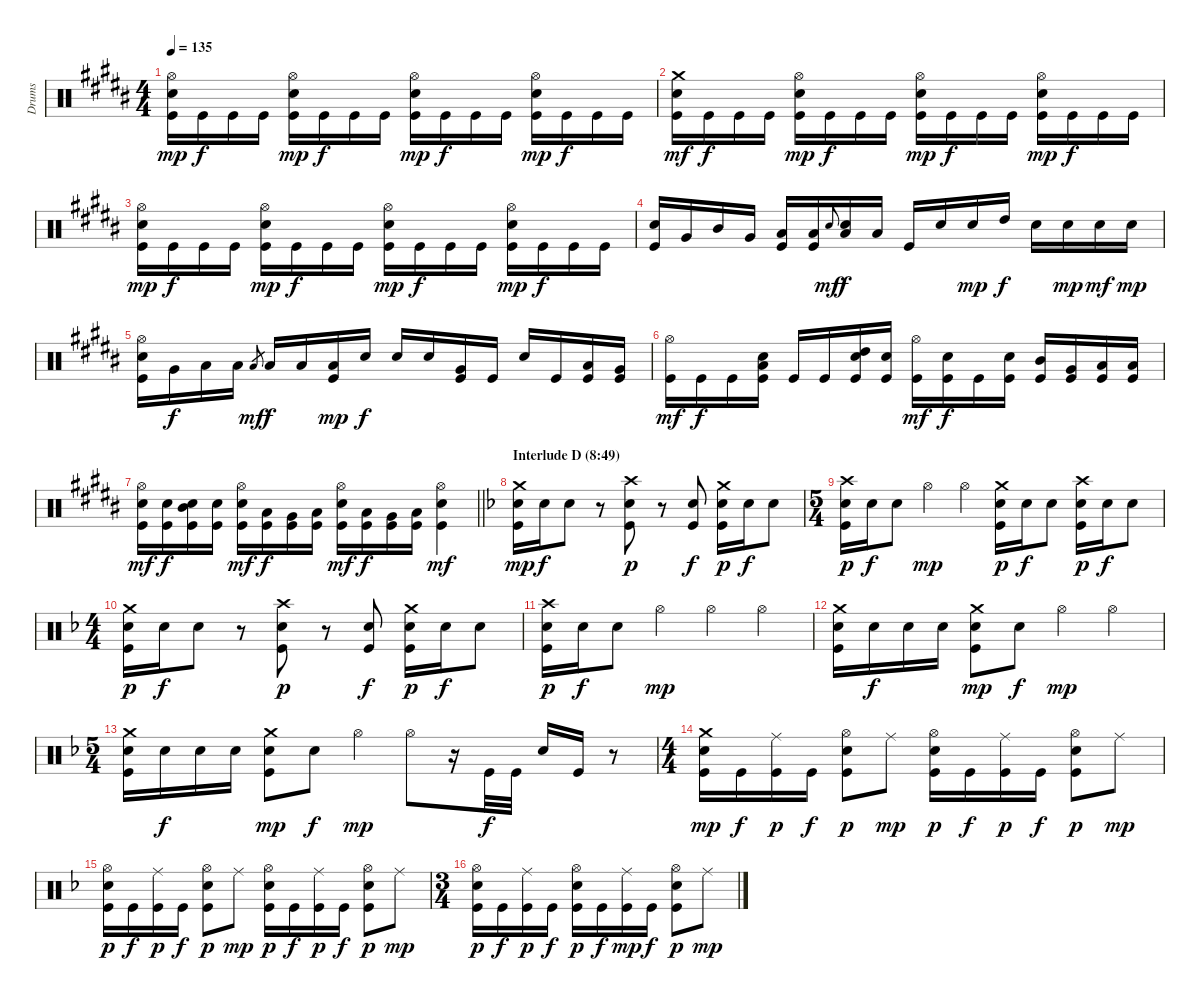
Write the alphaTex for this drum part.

\track ("Drums" "Drums") {instrument percussion}
\staff {score}
\articulation defaults
\ts (4 4)
\tempo 135
\clef neutral
\ks g#minor
("Hi-Hat (open)" "Snare (hit) 2" "Kick (hit)").16{dy mp} "Kick (hit)".16{dy f} "Kick (hit)".16 "Kick (hit)".16 ("Hi-Hat (open)" "Snare (hit) 2" "Kick (hit)").16{dy mp} "Kick (hit)".16{dy f} "Kick (hit)".16 "Kick (hit)".16 ("Hi-Hat (open)" "Snare (hit) 2" "Kick (hit)").16{dy mp} "Kick (hit)".16{dy f} "Kick (hit)".16 "Kick (hit)".16 ("Hi-Hat (open)" "Snare (hit) 2" "Kick (hit)").16{dy mp} "Kick (hit)".16{dy f} "Kick (hit)".16 "Kick (hit)".16 |
("Crash medium (hit)" "Snare (hit) 2" "Kick (hit)").16{dy mf} "Kick (hit)".16{dy f} "Kick (hit)".16 "Kick (hit)".16 ("Hi-Hat (open)" "Snare (hit) 2" "Kick (hit)").16{dy mp} "Kick (hit)".16{dy f} "Kick (hit)".16 "Kick (hit)".16 ("Hi-Hat (open)" "Snare (hit) 2" "Kick (hit)").16{dy mp} "Kick (hit)".16{dy f} "Kick (hit)".16 "Kick (hit)".16 ("Hi-Hat (open)" "Snare (hit) 2" "Kick (hit)").16{dy mp} "Kick (hit)".16{dy f} "Kick (hit)".16 "Kick (hit)".16 |
("Hi-Hat (open)" "Snare (hit) 2" "Kick (hit)").16{dy mp} "Kick (hit)".16{dy f} "Kick (hit)".16 "Kick (hit)".16 ("Hi-Hat (open)" "Snare (hit) 2" "Kick (hit)").16{dy mp} "Kick (hit)".16{dy f} "Kick (hit)".16 "Kick (hit)".16 ("Hi-Hat (open)" "Snare (hit) 2" "Kick (hit)").16{dy mp} "Kick (hit)".16{dy f} "Kick (hit)".16 "Kick (hit)".16 ("Hi-Hat (open)" "Snare (hit) 2" "Kick (hit)").16{dy mp} "Kick (hit)".16{dy f} "Kick (hit)".16 "Kick (hit)".16 |
("Snare (hit) 2" "Kick (hit)").16 "Very Low Tom (hit)".16 "Mid Tom (hit)".16 "Very Low Tom (hit)".16 ("Low Floor Tom (hit)" "Kick (hit)").16 ("Low Floor Tom (hit)" "Kick (hit)").16 "Snare (hit) 2".8{gr onbeat dy mf} ("Low Tom (hit)" "Snare (hit) 2").16{dy f} "Low Floor Tom (hit)".16 "Kick (hit)".16 "Snare (hit) 2".16 "Snare (hit) 2".16{dy mp} "High Tom (hit)".16{dy f} "Snare (hit) 2".16 "Snare (hit) 2".16{dy mp} "Snare (hit) 2".16{dy mf} "Snare (hit) 2".16{dy mp} |
("Hi-Hat (open)" "Snare (hit) 2" "Kick (hit)").16 "Very Low Tom (hit)".16{dy f} "Low Floor Tom (hit)".16 "Low Floor Tom (hit)".16 "Low Floor Tom (hit)".8{gr dy mf} "Low Floor Tom (hit)".16{dy f} "Low Floor Tom (hit)".16 ("Low Floor Tom (hit)" "Kick (hit)").16{dy mp} "Snare (hit) 2".16{dy f} "Snare (hit) 2".16 "Snare (hit) 2".16 ("Very Low Tom (hit)" "Kick (hit)").16 "Kick (hit)".16 "Snare (hit) 2".16 "Kick (hit)".16 ("Low Tom (hit)" "Kick (hit)").16 ("Very Low Tom (hit)" "Kick (hit)").16 |
("Hi-Hat (open)" "Kick (hit)").16{dy mf} "Kick (hit)".16{dy f} "Kick (hit)".16 ("Low Tom (hit)" "Snare (hit) 2" "Kick (hit)").16 "Kick (hit)".16 "Kick (hit)".16 ("High Tom (hit)" "Snare (hit) 2" "Kick (hit)").16 ("Snare (hit) 2" "Kick (hit)").16 ("Hi-Hat (open)" "Kick (hit)").16{dy mf} ("Snare (hit) 2" "Kick (hit)").16{dy f} "Kick (hit)".16 ("Snare (hit) 2" "Kick (hit)").16 ("Mid Tom (hit)" "Kick (hit)").16 ("Very Low Tom (hit)" "Kick (hit)").16 ("Low Floor Tom (hit)" "Kick (hit)").16 ("Low Floor Tom (hit)" "Kick (hit)").16 |
\barLineRight lightlight
("Hi-Hat (open)" "Snare (hit) 2" "Kick (hit)").16{dy mf} ("Snare (hit) 2" "Kick (hit)").16{dy f} ("Mid Tom (hit)" "Snare (hit) 2" "Kick (hit)").16 ("Snare (hit) 2" "Kick (hit)").16 ("Hi-Hat (open)" "Snare (hit) 2" "Kick (hit)").16{dy mf} ("Low Tom (hit)" "Kick (hit)").16{dy f} ("Very Low Tom (hit)" "Kick (hit)").16 ("Low Floor Tom (hit)" "Kick (hit)").16 ("Hi-Hat (open)" "Snare (hit) 2" "Kick (hit)").16{dy mf} ("Low Tom (hit)" "Kick (hit)").16{dy f} ("Very Low Tom (hit)" "Kick (hit)").16 ("Low Floor Tom (hit)" "Kick (hit)").16 ("Hi-Hat (open)" "Snare (hit) 2" "Kick (hit)").4{dy mf} |
\section ("" "Interlude D (8:49)")
\ks dminor
("Crash medium (hit)" "Snare (hit) 2" "Kick (hit)").16{dy mp} "Snare (hit) 2".16{dy f} "Snare (hit) 2".8 r.8 ("Crash high (hit)" "Snare (hit) 2" "Kick (hit)").8{dy p} r.8 ("Snare (hit) 2" "Kick (hit)").8{dy f} ("Crash medium (hit)" "Snare (hit) 2" "Kick (hit)").16{dy p} "Snare (hit) 2".16{dy f} "Snare (hit) 2".8 |
\ts (5 4)
("Crash high (hit)" "Snare (hit) 2" "Kick (hit)").16{dy p} "Snare (hit) 2".16{dy f} "Snare (hit) 2".8 "Hi-Hat (open)".4{dy mp} "Hi-Hat (open)".4 ("Crash medium (hit)" "Snare (hit) 2" "Kick (hit)").16{dy p} "Snare (hit) 2".16{dy f} "Snare (hit) 2".8 ("Crash high (hit)" "Snare (hit) 2" "Kick (hit)").16{dy p} "Snare (hit) 2".16{dy f} "Snare (hit) 2".8 |
\ts (4 4)
("Crash medium (hit)" "Snare (hit) 2" "Kick (hit)").16{dy p} "Snare (hit) 2".16{dy f} "Snare (hit) 2".8 r.8 ("Crash high (hit)" "Snare (hit) 2" "Kick (hit)").8{dy p} r.8 ("Snare (hit) 2" "Kick (hit)").8{dy f} ("Crash medium (hit)" "Snare (hit) 2" "Kick (hit)").16{dy p} "Snare (hit) 2".16{dy f} "Snare (hit) 2".8 |
("Crash high (hit)" "Snare (hit) 2" "Kick (hit)").16{dy p} "Snare (hit) 2".16{dy f} "Snare (hit) 2".8 "Hi-Hat (open)".4{dy mp} "Hi-Hat (open)".4 "Hi-Hat (open)".4 |
("Crash medium (hit)" "Snare (hit) 2" "Kick (hit)").16 "Snare (hit) 2".16{dy f} "Snare (hit) 2".16 "Snare (hit) 2".16 ("Crash medium (hit)" "Snare (hit) 2" "Kick (hit)").8{dy mp} "Snare (hit) 2".8{dy f} "Hi-Hat (open)".4{dy mp} "Hi-Hat (open)".4 |
\ts (5 4)
("Crash medium (hit)" "Snare (hit) 2" "Kick (hit)").16 "Snare (hit) 2".16{dy f} "Snare (hit) 2".16 "Snare (hit) 2".16 ("Crash medium (hit)" "Snare (hit) 2" "Kick (hit)").8{dy mp} "Snare (hit) 2".8{dy f} "Hi-Hat (open)".4{dy mp} "Hi-Hat (open)".8 r.16 "Kick (hit)".32{dy f} "Kick (hit)".32 "Snare (hit) 2".16 "Kick (hit)".16 r.8 |
\ts (4 4)
("Crash medium (hit)" "Snare (hit) 2" "Kick (hit)").16{dy mp} "Kick (hit)".16{dy f} ("Ride (middle)" "Kick (hit)").16{dy p} "Kick (hit)".16{dy f} ("Hi-Hat (open)" "Snare (hit) 2" "Kick (hit)").8{dy p} "Ride (middle)".8{dy mp} ("Hi-Hat (open)" "Snare (hit) 2" "Kick (hit)").16{dy p} "Kick (hit)".16{dy f} ("Ride (middle)" "Kick (hit)").16{dy p} "Kick (hit)".16{dy f} ("Hi-Hat (open)" "Snare (hit) 2" "Kick (hit)").8{dy p} "Ride (middle)".8{dy mp} |
("Hi-Hat (open)" "Snare (hit) 2" "Kick (hit)").16{dy p} "Kick (hit)".16{dy f} ("Ride (middle)" "Kick (hit)").16{dy p} "Kick (hit)".16{dy f} ("Hi-Hat (open)" "Snare (hit) 2" "Kick (hit)").8{dy p} "Ride (middle)".8{dy mp} ("Hi-Hat (open)" "Snare (hit) 2" "Kick (hit)").16{dy p} "Kick (hit)".16{dy f} ("Ride (middle)" "Kick (hit)").16{dy p} "Kick (hit)".16{dy f} ("Hi-Hat (open)" "Snare (hit) 2" "Kick (hit)").8{dy p} "Ride (middle)".8{dy mp} |
\ts (3 4)
("Hi-Hat (open)" "Snare (hit) 2" "Kick (hit)").16{dy p} "Kick (hit)".16{dy f} ("Ride (middle)" "Kick (hit)").16{dy p} "Kick (hit)".16{dy f} ("Hi-Hat (open)" "Snare (hit) 2" "Kick (hit)").16{dy p} "Kick (hit)".16{dy f} ("Ride (middle)" "Kick (hit)").16{dy mp} "Kick (hit)".16{dy f} ("Hi-Hat (open)" "Snare (hit) 2" "Kick (hit)").8{dy p} "Ride (middle)".8{dy mp}
